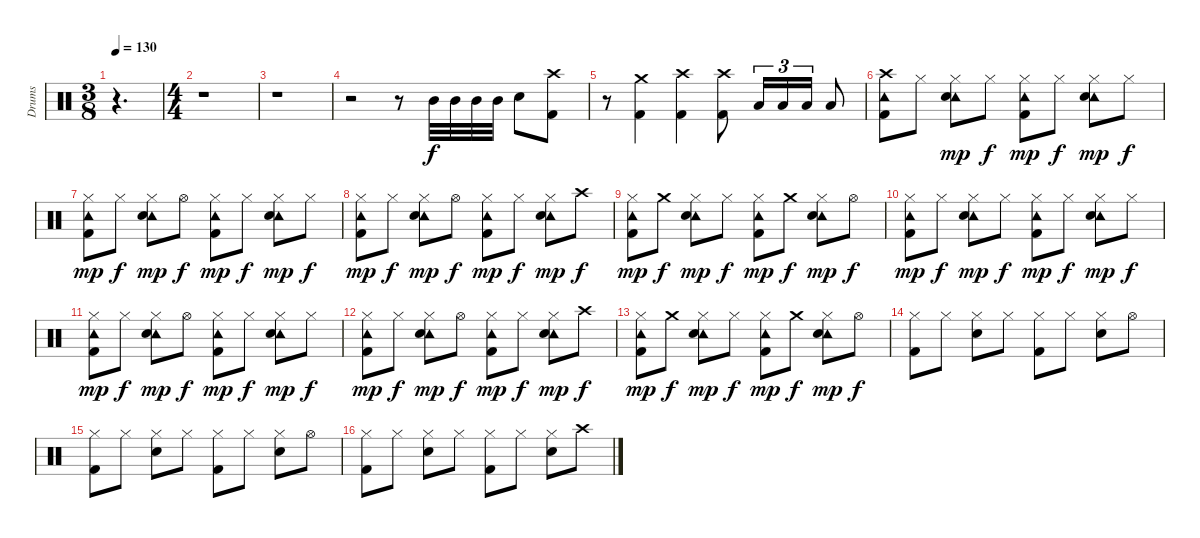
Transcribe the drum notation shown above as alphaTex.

\track ("Drums" "Drums") {instrument percussion}
\staff {score}
\articulation defaults
\ts (3 8)
\tempo 130
\clef neutral
\ks c
r.4{d dy f} |
\ts (4 4)
r.1 |
r.1 |
r.2 r.8 "Mid Tom (hit)".32 "Mid Tom (hit)".32 "Mid Tom (hit)".32 "Mid Tom (hit)".32 "Electric Snare (hit)".8 ("Crash high (hit)" "Kick (hit) 2").8 |
r.8 ("Crash medium (hit)" "Kick (hit) 2").4 ("Crash high (hit)" "Kick (hit) 2").4 ("Crash high (hit)" "Kick (hit) 2").8 "Low Tom (hit)".16{tu (3 2)} "Low Tom (hit)".16{tu (3 2)} "Low Tom (hit)".16{tu (3 2)} "Low Tom (hit)".8 |
("Crash high (hit)" "Tambourine (hit)" "Kick (hit) 2").8 "Hi-Hat (closed)".8 ("Hi-Hat (closed)" "Tambourine (hit)" "Electric Snare (hit)").8{dy mp} "Hi-Hat (closed)".8{dy f} ("Hi-Hat (closed)" "Tambourine (hit)" "Kick (hit) 2").8{dy mp} "Hi-Hat (closed)".8{dy f} ("Hi-Hat (closed)" "Tambourine (hit)" "Electric Snare (hit)").8{dy mp} "Hi-Hat (closed)".8{dy f} |
("Hi-Hat (closed)" "Tambourine (hit)" "Kick (hit) 2").8{dy mp} "Hi-Hat (closed)".8{dy f} ("Hi-Hat (closed)" "Tambourine (hit)" "Electric Snare (hit)").8{dy mp} "Hi-Hat (open)".8{dy f} ("Hi-Hat (closed)" "Tambourine (hit)" "Kick (hit) 2").8{dy mp} "Hi-Hat (closed)".8{dy f} ("Hi-Hat (closed)" "Tambourine (hit)" "Electric Snare (hit)").8{dy mp} "Hi-Hat (closed)".8{dy f} |
("Hi-Hat (closed)" "Tambourine (hit)" "Kick (hit) 2").8{dy mp} "Hi-Hat (closed)".8{dy f} ("Hi-Hat (closed)" "Tambourine (hit)" "Electric Snare (hit)").8{dy mp} "Hi-Hat (open)".8{dy f} ("Hi-Hat (closed)" "Tambourine (hit)" "Kick (hit) 2").8{dy mp} "Hi-Hat (closed)".8{dy f} ("Hi-Hat (closed)" "Tambourine (hit)" "Electric Snare (hit)").8{dy mp} "Crash high (hit)".8{dy f} |
("Hi-Hat (closed)" "Tambourine (hit)" "Kick (hit) 2").8{dy mp} "Crash medium (hit)".8{dy f} ("Hi-Hat (closed)" "Tambourine (hit)" "Electric Snare (hit)").8{dy mp} "Hi-Hat (closed)".8{dy f} ("Hi-Hat (closed)" "Tambourine (hit)" "Kick (hit) 2").8{dy mp} "Crash medium (hit)".8{dy f} ("Hi-Hat (closed)" "Tambourine (hit)" "Electric Snare (hit)").8{dy mp} "Hi-Hat (open)".8{dy f} |
("Hi-Hat (closed)" "Tambourine (hit)" "Kick (hit) 2").8{dy mp} "Hi-Hat (closed)".8{dy f} ("Hi-Hat (closed)" "Tambourine (hit)" "Electric Snare (hit)").8{dy mp} "Hi-Hat (closed)".8{dy f} ("Hi-Hat (closed)" "Tambourine (hit)" "Kick (hit) 2").8{dy mp} "Hi-Hat (closed)".8{dy f} ("Hi-Hat (closed)" "Tambourine (hit)" "Electric Snare (hit)").8{dy mp} "Hi-Hat (closed)".8{dy f} |
("Hi-Hat (closed)" "Tambourine (hit)" "Kick (hit) 2").8{dy mp} "Hi-Hat (closed)".8{dy f} ("Hi-Hat (closed)" "Tambourine (hit)" "Electric Snare (hit)").8{dy mp} "Hi-Hat (open)".8{dy f} ("Hi-Hat (closed)" "Tambourine (hit)" "Kick (hit) 2").8{dy mp} "Hi-Hat (closed)".8{dy f} ("Hi-Hat (closed)" "Tambourine (hit)" "Electric Snare (hit)").8{dy mp} "Hi-Hat (closed)".8{dy f} |
("Hi-Hat (closed)" "Tambourine (hit)" "Kick (hit) 2").8{dy mp} "Hi-Hat (closed)".8{dy f} ("Hi-Hat (closed)" "Tambourine (hit)" "Electric Snare (hit)").8{dy mp} "Hi-Hat (open)".8{dy f} ("Hi-Hat (closed)" "Tambourine (hit)" "Kick (hit) 2").8{dy mp} "Hi-Hat (closed)".8{dy f} ("Hi-Hat (closed)" "Tambourine (hit)" "Electric Snare (hit)").8{dy mp} "Crash high (hit)".8{dy f} |
("Hi-Hat (closed)" "Tambourine (hit)" "Kick (hit) 2").8{dy mp} "Crash medium (hit)".8{dy f} ("Hi-Hat (closed)" "Tambourine (hit)" "Electric Snare (hit)").8{dy mp} "Hi-Hat (closed)".8{dy f} ("Hi-Hat (closed)" "Tambourine (hit)" "Kick (hit) 2").8{dy mp} "Crash medium (hit)".8{dy f} ("Hi-Hat (closed)" "Tambourine (hit)" "Electric Snare (hit)").8{dy mp} "Hi-Hat (open)".8{dy f} |
("Hi-Hat (closed)" "Kick (hit) 2").8 "Hi-Hat (closed)".8 ("Hi-Hat (closed)" "Electric Snare (hit)").8 "Hi-Hat (closed)".8 ("Hi-Hat (closed)" "Kick (hit) 2").8 "Hi-Hat (closed)".8 ("Hi-Hat (closed)" "Electric Snare (hit)").8 "Hi-Hat (open)".8 |
("Hi-Hat (closed)" "Kick (hit) 2").8 "Hi-Hat (closed)".8 ("Hi-Hat (closed)" "Electric Snare (hit)").8 "Hi-Hat (closed)".8 ("Hi-Hat (closed)" "Kick (hit) 2").8 "Hi-Hat (closed)".8 ("Hi-Hat (closed)" "Electric Snare (hit)").8 "Hi-Hat (open)".8 |
("Hi-Hat (closed)" "Kick (hit) 2").8 "Hi-Hat (closed)".8 ("Hi-Hat (closed)" "Electric Snare (hit)").8 "Hi-Hat (closed)".8 ("Hi-Hat (closed)" "Kick (hit) 2").8 "Hi-Hat (closed)".8 ("Hi-Hat (closed)" "Electric Snare (hit)").8 "Crash high (hit)".8
